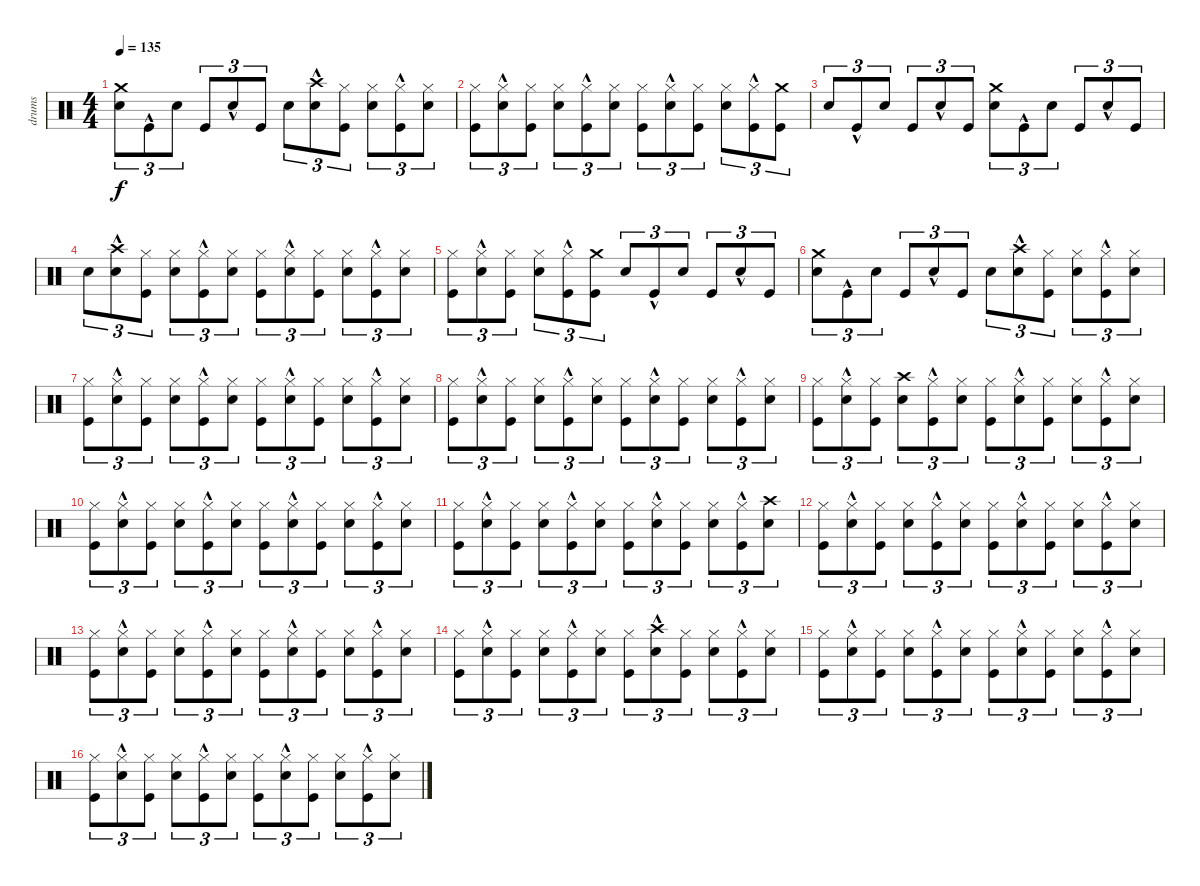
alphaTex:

\track ("drums" "drums") {instrument percussion}
\staff {score}
\articulation defaults
\ts (4 4)
\tempo 135
\clef neutral
\ks c
("Crash medium (hit)" "Snare (hit) 2").8{tu (3 2) dy f} "Kick (hit)"{hac}.8{tu (3 2)} "Snare (hit) 2".8{tu (3 2)} "Kick (hit)".8{tu (3 2)} "Snare (hit) 2"{hac}.8{tu (3 2)} "Kick (hit)".8{tu (3 2)} "Snare (hit) 2".8{tu (3 2)} ("Crash high (hit)"{hac} "Snare (hit) 2"{hac}).8{tu (3 2)} ("Hi-Hat (closed)" "Kick (hit)").8{tu (3 2)} ("Snare (hit) 2" "Hi-Hat (closed)").8{tu (3 2)} ("Kick (hit)"{hac} "Hi-Hat (closed)"{hac}).8{tu (3 2)} ("Snare (hit) 2" "Hi-Hat (closed)").8{tu (3 2)} |
("Kick (hit)" "Hi-Hat (closed)").8{tu (3 2)} ("Snare (hit) 2"{hac} "Hi-Hat (closed)"{hac}).8{tu (3 2)} ("Kick (hit)" "Hi-Hat (closed)").8{tu (3 2)} ("Hi-Hat (closed)" "Snare (hit) 2").8{tu (3 2)} ("Hi-Hat (closed)"{hac} "Kick (hit)"{hac}).8{tu (3 2)} ("Snare (hit) 2" "Hi-Hat (closed)").8{tu (3 2)} ("Kick (hit)" "Hi-Hat (closed)").8{tu (3 2)} ("Snare (hit) 2"{hac} "Hi-Hat (closed)"{hac}).8{tu (3 2)} ("Kick (hit)" "Hi-Hat (closed)").8{tu (3 2)} ("Snare (hit) 2" "Hi-Hat (closed)").8{tu (3 2)} ("Hi-Hat (closed)"{hac} "Kick (hit)"{hac}).8{tu (3 2)} ("Crash medium (hit)" "Kick (hit)").8{tu (3 2)} |
"Snare (hit) 2".8{tu (3 2)} "Kick (hit)"{hac}.8{tu (3 2)} "Snare (hit) 2".8{tu (3 2)} "Kick (hit)".8{tu (3 2)} "Snare (hit) 2"{hac}.8{tu (3 2)} "Kick (hit)".8{tu (3 2)} ("Crash medium (hit)" "Snare (hit) 2").8{tu (3 2)} "Kick (hit)"{hac}.8{tu (3 2)} "Snare (hit) 2".8{tu (3 2)} "Kick (hit)".8{tu (3 2)} "Snare (hit) 2"{hac}.8{tu (3 2)} "Kick (hit)".8{tu (3 2)} |
"Snare (hit) 2".8{tu (3 2)} ("Crash high (hit)"{hac} "Snare (hit) 2"{hac}).8{tu (3 2)} ("Hi-Hat (closed)" "Kick (hit)").8{tu (3 2)} ("Snare (hit) 2" "Hi-Hat (closed)").8{tu (3 2)} ("Kick (hit)"{hac} "Hi-Hat (closed)"{hac}).8{tu (3 2)} ("Snare (hit) 2" "Hi-Hat (closed)").8{tu (3 2)} ("Kick (hit)" "Hi-Hat (closed)").8{tu (3 2)} ("Snare (hit) 2"{hac} "Hi-Hat (closed)"{hac}).8{tu (3 2)} ("Kick (hit)" "Hi-Hat (closed)").8{tu (3 2)} ("Hi-Hat (closed)" "Snare (hit) 2").8{tu (3 2)} ("Hi-Hat (closed)"{hac} "Kick (hit)"{hac}).8{tu (3 2)} ("Snare (hit) 2" "Hi-Hat (closed)").8{tu (3 2)} |
("Kick (hit)" "Hi-Hat (closed)").8{tu (3 2)} ("Snare (hit) 2"{hac} "Hi-Hat (closed)"{hac}).8{tu (3 2)} ("Kick (hit)" "Hi-Hat (closed)").8{tu (3 2)} ("Snare (hit) 2" "Hi-Hat (closed)").8{tu (3 2)} ("Hi-Hat (closed)"{hac} "Kick (hit)"{hac}).8{tu (3 2)} ("Crash medium (hit)" "Kick (hit)").8{tu (3 2)} "Snare (hit) 2".8{tu (3 2)} "Kick (hit)"{hac}.8{tu (3 2)} "Snare (hit) 2".8{tu (3 2)} "Kick (hit)".8{tu (3 2)} "Snare (hit) 2"{hac}.8{tu (3 2)} "Kick (hit)".8{tu (3 2)} |
("Crash medium (hit)" "Snare (hit) 2").8{tu (3 2)} "Kick (hit)"{hac}.8{tu (3 2)} "Snare (hit) 2".8{tu (3 2)} "Kick (hit)".8{tu (3 2)} "Snare (hit) 2"{hac}.8{tu (3 2)} "Kick (hit)".8{tu (3 2)} "Snare (hit) 2".8{tu (3 2)} ("Snare (hit) 2"{hac} "Crash high (hit)"{hac}).8{tu (3 2)} ("Hi-Hat (closed)" "Kick (hit)").8{tu (3 2)} ("Snare (hit) 2" "Hi-Hat (closed)").8{tu (3 2)} ("Kick (hit)"{hac} "Hi-Hat (closed)"{hac}).8{tu (3 2)} ("Snare (hit) 2" "Hi-Hat (closed)").8{tu (3 2)} |
("Kick (hit)" "Hi-Hat (closed)").8{tu (3 2)} ("Snare (hit) 2"{hac} "Hi-Hat (closed)"{hac}).8{tu (3 2)} ("Kick (hit)" "Hi-Hat (closed)").8{tu (3 2)} ("Hi-Hat (closed)" "Snare (hit) 2").8{tu (3 2)} ("Hi-Hat (closed)"{hac} "Kick (hit)"{hac}).8{tu (3 2)} ("Snare (hit) 2" "Hi-Hat (closed)").8{tu (3 2)} ("Kick (hit)" "Hi-Hat (closed)").8{tu (3 2)} ("Snare (hit) 2"{hac} "Hi-Hat (closed)"{hac}).8{tu (3 2)} ("Kick (hit)" "Hi-Hat (closed)").8{tu (3 2)} ("Snare (hit) 2" "Hi-Hat (closed)").8{tu (3 2)} ("Kick (hit)"{hac} "Hi-Hat (closed)"{hac}).8{tu (3 2)} ("Hi-Hat (closed)" "Snare (hit) 2").8{tu (3 2)} |
("Hi-Hat (closed)" "Kick (hit)").8{tu (3 2)} ("Snare (hit) 2"{hac} "Hi-Hat (closed)"{hac}).8{tu (3 2)} ("Kick (hit)" "Hi-Hat (closed)").8{tu (3 2)} ("Snare (hit) 2" "Hi-Hat (closed)").8{tu (3 2)} ("Kick (hit)"{hac} "Hi-Hat (closed)"{hac}).8{tu (3 2)} ("Snare (hit) 2" "Hi-Hat (closed)").8{tu (3 2)} ("Kick (hit)" "Hi-Hat (closed)").8{tu (3 2)} ("Hi-Hat (closed)"{hac} "Snare (hit) 2"{hac}).8{tu (3 2)} ("Hi-Hat (closed)" "Kick (hit)").8{tu (3 2)} ("Snare (hit) 2" "Hi-Hat (closed)").8{tu (3 2)} ("Kick (hit)"{hac} "Hi-Hat (closed)"{hac}).8{tu (3 2)} ("Snare (hit) 2" "Hi-Hat (closed)").8{tu (3 2)} |
("Kick (hit)" "Hi-Hat (closed)").8{tu (3 2)} ("Snare (hit) 2"{hac} "Hi-Hat (closed)"{hac}).8{tu (3 2)} ("Hi-Hat (closed)" "Kick (hit)").8{tu (3 2)} ("Snare (hit) 2" "Crash high (hit)").8{tu (3 2)} ("Hi-Hat (closed)"{hac} "Kick (hit)"{hac}).8{tu (3 2)} ("Snare (hit) 2" "Hi-Hat (closed)").8{tu (3 2)} ("Kick (hit)" "Hi-Hat (closed)").8{tu (3 2)} ("Snare (hit) 2"{hac} "Hi-Hat (closed)"{hac}).8{tu (3 2)} ("Kick (hit)" "Hi-Hat (closed)").8{tu (3 2)} ("Snare (hit) 2" "Hi-Hat (closed)").8{tu (3 2)} ("Kick (hit)"{hac} "Hi-Hat (closed)"{hac}).8{tu (3 2)} ("Hi-Hat (closed)" "Snare (hit) 2").8{tu (3 2)} |
("Hi-Hat (closed)" "Kick (hit)").8{tu (3 2)} ("Snare (hit) 2"{hac} "Hi-Hat (closed)"{hac}).8{tu (3 2)} ("Kick (hit)" "Hi-Hat (closed)").8{tu (3 2)} ("Snare (hit) 2" "Hi-Hat (closed)").8{tu (3 2)} ("Kick (hit)"{hac} "Hi-Hat (closed)"{hac}).8{tu (3 2)} ("Snare (hit) 2" "Hi-Hat (closed)").8{tu (3 2)} ("Kick (hit)" "Hi-Hat (closed)").8{tu (3 2)} ("Hi-Hat (closed)"{hac} "Snare (hit) 2"{hac}).8{tu (3 2)} ("Hi-Hat (closed)" "Kick (hit)").8{tu (3 2)} ("Snare (hit) 2" "Hi-Hat (closed)").8{tu (3 2)} ("Kick (hit)"{hac} "Hi-Hat (closed)"{hac}).8{tu (3 2)} ("Snare (hit) 2" "Hi-Hat (closed)").8{tu (3 2)} |
("Kick (hit)" "Hi-Hat (closed)").8{tu (3 2)} ("Snare (hit) 2"{hac} "Hi-Hat (closed)"{hac}).8{tu (3 2)} ("Kick (hit)" "Hi-Hat (closed)").8{tu (3 2)} ("Hi-Hat (closed)" "Snare (hit) 2").8{tu (3 2)} ("Hi-Hat (closed)"{hac} "Kick (hit)"{hac}).8{tu (3 2)} ("Snare (hit) 2" "Hi-Hat (closed)").8{tu (3 2)} ("Kick (hit)" "Hi-Hat (closed)").8{tu (3 2)} ("Snare (hit) 2"{hac} "Hi-Hat (closed)"{hac}).8{tu (3 2)} ("Kick (hit)" "Hi-Hat (closed)").8{tu (3 2)} ("Snare (hit) 2" "Hi-Hat (closed)").8{tu (3 2)} ("Hi-Hat (closed)"{hac} "Kick (hit)"{hac}).8{tu (3 2)} ("Snare (hit) 2" "Crash high (hit)").8{tu (3 2)} |
("Hi-Hat (closed)" "Kick (hit)").8{tu (3 2)} ("Snare (hit) 2"{hac} "Hi-Hat (closed)"{hac}).8{tu (3 2)} ("Kick (hit)" "Hi-Hat (closed)").8{tu (3 2)} ("Snare (hit) 2" "Hi-Hat (closed)").8{tu (3 2)} ("Kick (hit)"{hac} "Hi-Hat (closed)"{hac}).8{tu (3 2)} ("Snare (hit) 2" "Hi-Hat (closed)").8{tu (3 2)} ("Kick (hit)" "Hi-Hat (closed)").8{tu (3 2)} ("Hi-Hat (closed)"{hac} "Snare (hit) 2"{hac}).8{tu (3 2)} ("Hi-Hat (closed)" "Kick (hit)").8{tu (3 2)} ("Snare (hit) 2" "Hi-Hat (closed)").8{tu (3 2)} ("Kick (hit)"{hac} "Hi-Hat (closed)"{hac}).8{tu (3 2)} ("Snare (hit) 2" "Hi-Hat (closed)").8{tu (3 2)} |
("Kick (hit)" "Hi-Hat (closed)").8{tu (3 2)} ("Snare (hit) 2"{hac} "Hi-Hat (closed)"{hac}).8{tu (3 2)} ("Kick (hit)" "Hi-Hat (closed)").8{tu (3 2)} ("Hi-Hat (closed)" "Snare (hit) 2").8{tu (3 2)} ("Hi-Hat (closed)"{hac} "Kick (hit)"{hac}).8{tu (3 2)} ("Snare (hit) 2" "Hi-Hat (closed)").8{tu (3 2)} ("Kick (hit)" "Hi-Hat (closed)").8{tu (3 2)} ("Snare (hit) 2"{hac} "Hi-Hat (closed)"{hac}).8{tu (3 2)} ("Kick (hit)" "Hi-Hat (closed)").8{tu (3 2)} ("Snare (hit) 2" "Hi-Hat (closed)").8{tu (3 2)} ("Kick (hit)"{hac} "Hi-Hat (closed)"{hac}).8{tu (3 2)} ("Hi-Hat (closed)" "Snare (hit) 2").8{tu (3 2)} |
("Hi-Hat (closed)" "Kick (hit)").8{tu (3 2)} ("Snare (hit) 2"{hac} "Hi-Hat (closed)"{hac}).8{tu (3 2)} ("Kick (hit)" "Hi-Hat (closed)").8{tu (3 2)} ("Snare (hit) 2" "Hi-Hat (closed)").8{tu (3 2)} ("Kick (hit)"{hac} "Hi-Hat (closed)"{hac}).8{tu (3 2)} ("Snare (hit) 2" "Hi-Hat (closed)").8{tu (3 2)} ("Hi-Hat (closed)" "Kick (hit)").8{tu (3 2)} ("Snare (hit) 2"{hac} "Crash high (hit)"{hac}).8{tu (3 2)} ("Hi-Hat (closed)" "Kick (hit)").8{tu (3 2)} ("Snare (hit) 2" "Hi-Hat (closed)").8{tu (3 2)} ("Kick (hit)"{hac} "Hi-Hat (closed)"{hac}).8{tu (3 2)} ("Snare (hit) 2" "Hi-Hat (closed)").8{tu (3 2)} |
("Kick (hit)" "Hi-Hat (closed)").8{tu (3 2)} ("Snare (hit) 2"{hac} "Hi-Hat (closed)"{hac}).8{tu (3 2)} ("Kick (hit)" "Hi-Hat (closed)").8{tu (3 2)} ("Hi-Hat (closed)" "Snare (hit) 2").8{tu (3 2)} ("Hi-Hat (closed)"{hac} "Kick (hit)"{hac}).8{tu (3 2)} ("Snare (hit) 2" "Hi-Hat (closed)").8{tu (3 2)} ("Kick (hit)" "Hi-Hat (closed)").8{tu (3 2)} ("Snare (hit) 2"{hac} "Hi-Hat (closed)"{hac}).8{tu (3 2)} ("Kick (hit)" "Hi-Hat (closed)").8{tu (3 2)} ("Snare (hit) 2" "Hi-Hat (closed)").8{tu (3 2)} ("Kick (hit)"{hac} "Hi-Hat (closed)"{hac}).8{tu (3 2)} ("Hi-Hat (closed)" "Snare (hit) 2").8{tu (3 2)} |
("Hi-Hat (closed)" "Kick (hit)").8{tu (3 2)} ("Snare (hit) 2"{hac} "Hi-Hat (closed)"{hac}).8{tu (3 2)} ("Kick (hit)" "Hi-Hat (closed)").8{tu (3 2)} ("Snare (hit) 2" "Hi-Hat (closed)").8{tu (3 2)} ("Kick (hit)"{hac} "Hi-Hat (closed)"{hac}).8{tu (3 2)} ("Snare (hit) 2" "Hi-Hat (closed)").8{tu (3 2)} ("Kick (hit)" "Hi-Hat (closed)").8{tu (3 2)} ("Hi-Hat (closed)"{hac} "Snare (hit) 2"{hac}).8{tu (3 2)} ("Hi-Hat (closed)" "Kick (hit)").8{tu (3 2)} ("Snare (hit) 2" "Hi-Hat (closed)").8{tu (3 2)} ("Kick (hit)"{hac} "Hi-Hat (closed)"{hac}).8{tu (3 2)} ("Snare (hit) 2" "Hi-Hat (closed)").8{tu (3 2)}
